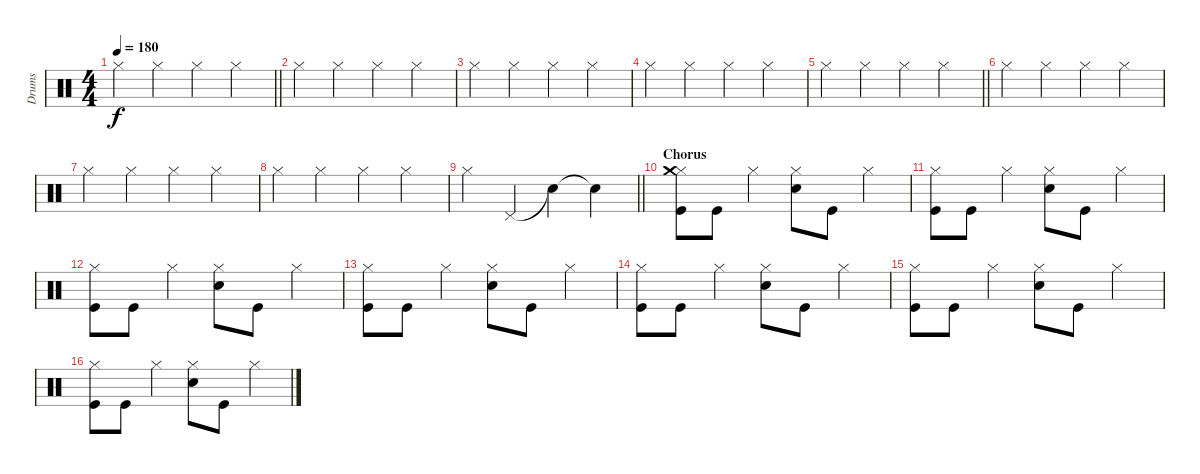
\track ("Drums" "Drums") {instrument percussion}
\staff {score}
\articulation defaults
\ts (4 4)
\tempo 180
\clef neutral
\barLineRight lightlight
\ks c "Hi-Hat (closed)".4{dy f} "Hi-Hat (closed)".4 "Hi-Hat (closed)".4 "Hi-Hat (closed)".4
|
"Hi-Hat (closed)".4 "Hi-Hat (closed)".4 "Hi-Hat (closed)".4 "Hi-Hat (closed)".4 |
"Hi-Hat (closed)".4 "Hi-Hat (closed)".4 "Hi-Hat (closed)".4 "Hi-Hat (closed)".4 |
"Hi-Hat (closed)".4 "Hi-Hat (closed)".4 "Hi-Hat (closed)".4 "Hi-Hat (closed)".4 |
\barLineRight lightlight "Hi-Hat (closed)".4 "Hi-Hat (closed)".4 "Hi-Hat (closed)".4 "Hi-Hat (closed)".4
|
"Hi-Hat (closed)".4 "Hi-Hat (closed)".4 "Hi-Hat (closed)".4 "Hi-Hat (closed)".4 |
"Hi-Hat (closed)".4 "Hi-Hat (closed)".4 "Hi-Hat (closed)".4 "Hi-Hat (closed)".4 |
"Hi-Hat (closed)".4 "Hi-Hat (closed)".4 "Hi-Hat (closed)".4 "Hi-Hat (closed)".4 |
\barLineRight lightlight "Hi-Hat (closed)".4 "Pedal Hi-Hat (hit)".4 "Snare (hit)"{t}.4 "Snare (hit)"{t}.4
|
\section ("" "Chorus")
("Hi-Hat (closed)" "Kick (hit)" "Crash medium (hit)").8 "Kick (hit)".8 "Hi-Hat (closed)".4 ("Hi-Hat (closed)" "Snare (hit) 2").8 "Kick (hit)".8 "Hi-Hat (closed)".4 |
("Hi-Hat (closed)" "Kick (hit)").8 "Kick (hit)".8 "Hi-Hat (closed)".4 ("Hi-Hat (closed)" "Snare (hit) 2").8 "Kick (hit)".8 "Hi-Hat (closed)".4 |
("Hi-Hat (closed)" "Kick (hit)").8 "Kick (hit)".8 "Hi-Hat (closed)".4 ("Hi-Hat (closed)" "Snare (hit) 2").8 "Kick (hit)".8 "Hi-Hat (closed)".4 |
("Hi-Hat (closed)" "Kick (hit)").8 "Kick (hit)".8 "Hi-Hat (closed)".4 ("Hi-Hat (closed)" "Snare (hit) 2").8 "Kick (hit)".8 "Hi-Hat (closed)".4 |
("Hi-Hat (closed)" "Kick (hit)").8 "Kick (hit)".8 "Hi-Hat (closed)".4 ("Hi-Hat (closed)" "Snare (hit) 2").8 "Kick (hit)".8 "Hi-Hat (closed)".4 |
("Hi-Hat (closed)" "Kick (hit)").8 "Kick (hit)".8 "Hi-Hat (closed)".4 ("Hi-Hat (closed)" "Snare (hit) 2").8 "Kick (hit)".8 "Hi-Hat (closed)".4 |
("Hi-Hat (closed)" "Kick (hit)").8 "Kick (hit)".8 "Hi-Hat (closed)".4 ("Hi-Hat (closed)" "Snare (hit) 2").8 "Kick (hit)".8 "Hi-Hat (closed)".4
